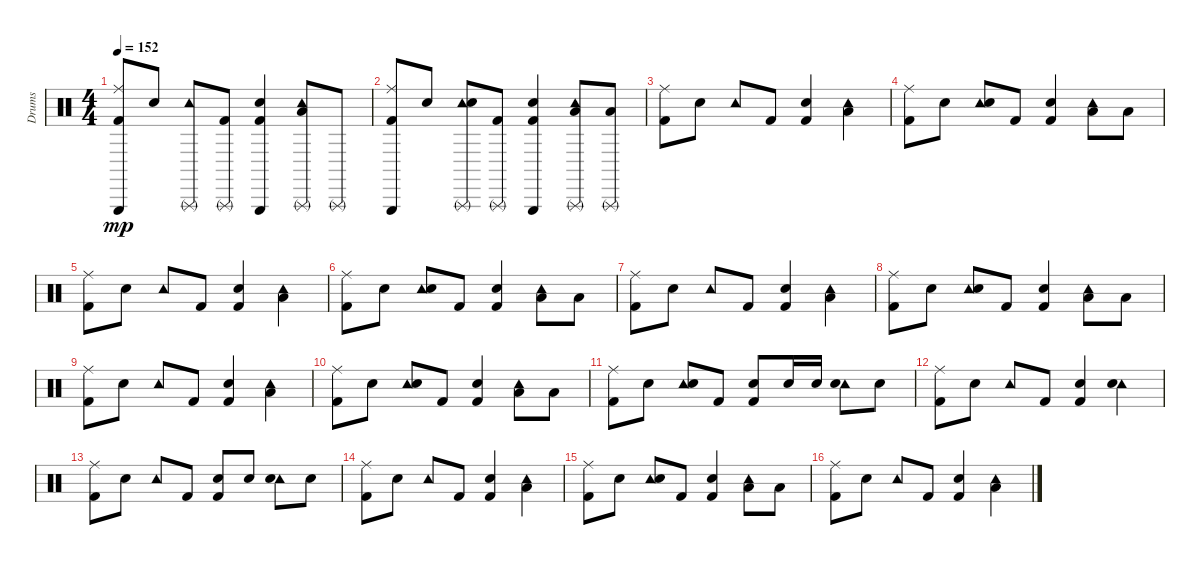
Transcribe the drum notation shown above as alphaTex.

\track ("Drums" "Drums") {instrument percussion}
\staff {score}
\articulation defaults
\ts (4 4)
\tempo 152
\clef neutral
\ks c
("Triangle (hit)" "Ride (middle)" "Kick (hit) 2").8{dy mp} "Snare (hit) 2".8 ("Triangle (rnute)" "Tambourine (hit)").8 ("Triangle (rnute)" "Kick (hit) 2").8 ("Triangle (hit)" "Kick (hit) 2" "Snare (hit) 2").4 ("Tambourine (hit)" "Low Tom (hit)" "Triangle (rnute)").8 "Triangle (rnute)".8 |
("Triangle (hit)" "Ride (middle)" "Kick (hit) 2").8 "Snare (hit) 2".8 ("Triangle (rnute)" "Tambourine (hit)" "Snare (hit) 2").8 ("Triangle (rnute)" "Kick (hit) 2").8 ("Triangle (hit)" "Kick (hit) 2" "Snare (hit) 2").4 ("Tambourine (hit)" "Triangle (rnute)" "Low Tom (hit)").8 ("Low Tom (hit)" "Triangle (rnute)").8 |
("Ride (middle)" "Kick (hit) 2").8 "Snare (hit) 2".8 "Tambourine (hit)".8 "Kick (hit) 2".8 ("Kick (hit) 2" "Snare (hit) 2").4 ("Tambourine (hit)" "Low Tom (hit)").4 |
("Ride (middle)" "Kick (hit) 2").8 "Snare (hit) 2".8 ("Tambourine (hit)" "Snare (hit) 2").8 "Kick (hit) 2".8 ("Kick (hit) 2" "Snare (hit) 2").4 ("Tambourine (hit)" "Low Tom (hit)").8 "Low Tom (hit)".8 |
("Ride (middle)" "Kick (hit) 2").8 "Snare (hit) 2".8 "Tambourine (hit)".8 "Kick (hit) 2".8 ("Kick (hit) 2" "Snare (hit) 2").4 ("Tambourine (hit)" "Low Tom (hit)").4 |
("Ride (middle)" "Kick (hit) 2").8 "Snare (hit) 2".8 ("Tambourine (hit)" "Snare (hit) 2").8 "Kick (hit) 2".8 ("Kick (hit) 2" "Snare (hit) 2").4 ("Tambourine (hit)" "Low Tom (hit)").8 "Low Tom (hit)".8 |
("Ride (middle)" "Kick (hit) 2").8 "Snare (hit) 2".8 "Tambourine (hit)".8 "Kick (hit) 2".8 ("Kick (hit) 2" "Snare (hit) 2").4 ("Tambourine (hit)" "Low Tom (hit)").4 |
("Ride (middle)" "Kick (hit) 2").8 "Snare (hit) 2".8 ("Tambourine (hit)" "Snare (hit) 2").8 "Kick (hit) 2".8 ("Kick (hit) 2" "Snare (hit) 2").4 ("Tambourine (hit)" "Low Tom (hit)").8 "Low Tom (hit)".8 |
("Ride (middle)" "Kick (hit) 2").8 "Snare (hit) 2".8 "Tambourine (hit)".8 "Kick (hit) 2".8 ("Kick (hit) 2" "Snare (hit) 2").4 ("Tambourine (hit)" "Low Tom (hit)").4 |
("Ride (middle)" "Kick (hit) 2").8 "Snare (hit) 2".8 ("Tambourine (hit)" "Snare (hit) 2").8 "Kick (hit) 2".8 ("Kick (hit) 2" "Snare (hit) 2").4 ("Tambourine (hit)" "Low Tom (hit)").8 "Low Tom (hit)".8 |
("Ride (middle)" "Kick (hit) 2").8 "Snare (hit) 2".8 ("Tambourine (hit)" "Snare (hit) 2").8 "Kick (hit) 2".8 ("Kick (hit) 2" "Snare (hit) 2").8 "Snare (hit) 2".16 "Snare (hit) 2".16 ("Tambourine (hit)" "Snare (hit) 2").8 "Snare (hit) 2".8 |
("Ride (middle)" "Kick (hit) 2").8 "Snare (hit) 2".8 "Tambourine (hit)".8 "Kick (hit) 2".8 ("Kick (hit) 2" "Snare (hit) 2").4 ("Tambourine (hit)" "Snare (hit) 2").4 |
("Ride (middle)" "Kick (hit) 2").8 "Snare (hit) 2".8 "Tambourine (hit)".8 "Kick (hit) 2".8 ("Kick (hit) 2" "Snare (hit) 2").8 "Snare (hit) 2".8 ("Tambourine (hit)" "Snare (hit) 2").8 "Snare (hit) 2".8 |
("Ride (middle)" "Kick (hit) 2").8 "Snare (hit) 2".8 "Tambourine (hit)".8 "Kick (hit) 2".8 ("Kick (hit) 2" "Snare (hit) 2").4 ("Tambourine (hit)" "Low Tom (hit)").4 |
("Ride (middle)" "Kick (hit) 2").8 "Snare (hit) 2".8 ("Tambourine (hit)" "Snare (hit) 2").8 "Kick (hit) 2".8 ("Kick (hit) 2" "Snare (hit) 2").4 ("Tambourine (hit)" "Low Tom (hit)").8 "Low Tom (hit)".8 |
("Ride (middle)" "Kick (hit) 2").8 "Snare (hit) 2".8 "Tambourine (hit)".8 "Kick (hit) 2".8 ("Kick (hit) 2" "Snare (hit) 2").4 ("Tambourine (hit)" "Low Tom (hit)").4
